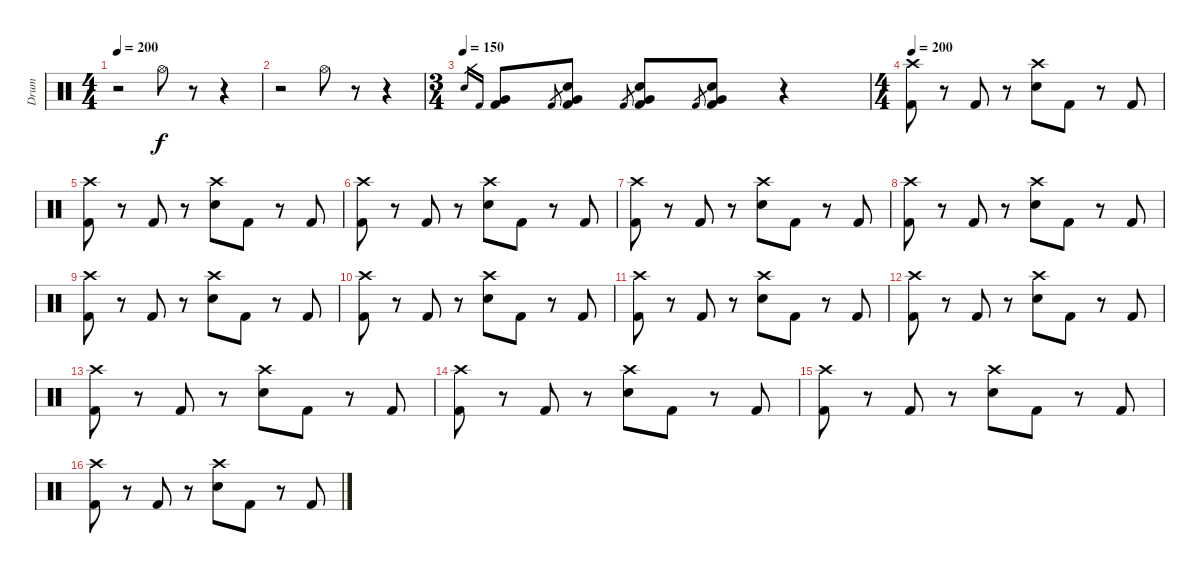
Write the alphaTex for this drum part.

\track ("Drum" "Drum") {instrument percussion}
\staff {score}
\articulation defaults
\ts (4 4)
\tempo 200
\clef neutral
\ks c
r.2{dy f} "Hi-Hat (open)".8 r.8 r.4 |
r.2 "Hi-Hat (open)".8 r.8 r.4 |
\ts (3 4)
\tempo (150)
"Electric Snare (hit)".16{gr} "Kick (hit) 2".16{gr} ("Very Low Tom (hit)" "Kick (hit) 2").8 "Kick (hit) 2".8{gr} ("Electric Snare (hit)" "Very Low Tom (hit)" "Kick (hit) 2").8 "Kick (hit) 2".8{gr} ("Electric Snare (hit)" "Very Low Tom (hit)" "Kick (hit) 2").8 "Kick (hit) 2".8{gr} ("Electric Snare (hit)" "Very Low Tom (hit)" "Kick (hit) 2").8 r.4 |
\ts (4 4)
\tempo 200
("Crash high (hit)" "Kick (hit) 2").8 r.8 "Kick (hit) 2".8 r.8 ("Crash high (hit)" "Electric Snare (hit)").8 "Kick (hit) 2".8 r.8 "Kick (hit) 2".8 |
("Crash high (hit)" "Kick (hit) 2").8 r.8 "Kick (hit) 2".8 r.8 ("Crash high (hit)" "Electric Snare (hit)").8 "Kick (hit) 2".8 r.8 "Kick (hit) 2".8 |
("Crash high (hit)" "Kick (hit) 2").8 r.8 "Kick (hit) 2".8 r.8 ("Crash high (hit)" "Electric Snare (hit)").8 "Kick (hit) 2".8 r.8 "Kick (hit) 2".8 |
("Crash high (hit)" "Kick (hit) 2").8 r.8 "Kick (hit) 2".8 r.8 ("Crash high (hit)" "Electric Snare (hit)").8 "Kick (hit) 2".8 r.8 "Kick (hit) 2".8 |
("Crash high (hit)" "Kick (hit) 2").8 r.8 "Kick (hit) 2".8 r.8 ("Crash high (hit)" "Electric Snare (hit)").8 "Kick (hit) 2".8 r.8 "Kick (hit) 2".8 |
("Crash high (hit)" "Kick (hit) 2").8 r.8 "Kick (hit) 2".8 r.8 ("Crash high (hit)" "Electric Snare (hit)").8 "Kick (hit) 2".8 r.8 "Kick (hit) 2".8 |
("Crash high (hit)" "Kick (hit) 2").8 r.8 "Kick (hit) 2".8 r.8 ("Crash high (hit)" "Electric Snare (hit)").8 "Kick (hit) 2".8 r.8 "Kick (hit) 2".8 |
("Crash high (hit)" "Kick (hit) 2").8 r.8 "Kick (hit) 2".8 r.8 ("Crash high (hit)" "Electric Snare (hit)").8 "Kick (hit) 2".8 r.8 "Kick (hit) 2".8 |
("Crash high (hit)" "Kick (hit) 2").8 r.8 "Kick (hit) 2".8 r.8 ("Crash high (hit)" "Electric Snare (hit)").8 "Kick (hit) 2".8 r.8 "Kick (hit) 2".8 |
("Crash high (hit)" "Kick (hit) 2").8 r.8 "Kick (hit) 2".8 r.8 ("Crash high (hit)" "Electric Snare (hit)").8 "Kick (hit) 2".8 r.8 "Kick (hit) 2".8 |
("Crash high (hit)" "Kick (hit) 2").8 r.8 "Kick (hit) 2".8 r.8 ("Crash high (hit)" "Electric Snare (hit)").8 "Kick (hit) 2".8 r.8 "Kick (hit) 2".8 |
("Crash high (hit)" "Kick (hit) 2").8 r.8 "Kick (hit) 2".8 r.8 ("Crash high (hit)" "Electric Snare (hit)").8 "Kick (hit) 2".8 r.8 "Kick (hit) 2".8 |
("Crash high (hit)" "Kick (hit) 2").8 r.8 "Kick (hit) 2".8 r.8 ("Crash high (hit)" "Electric Snare (hit)").8 "Kick (hit) 2".8 r.8 "Kick (hit) 2".8
